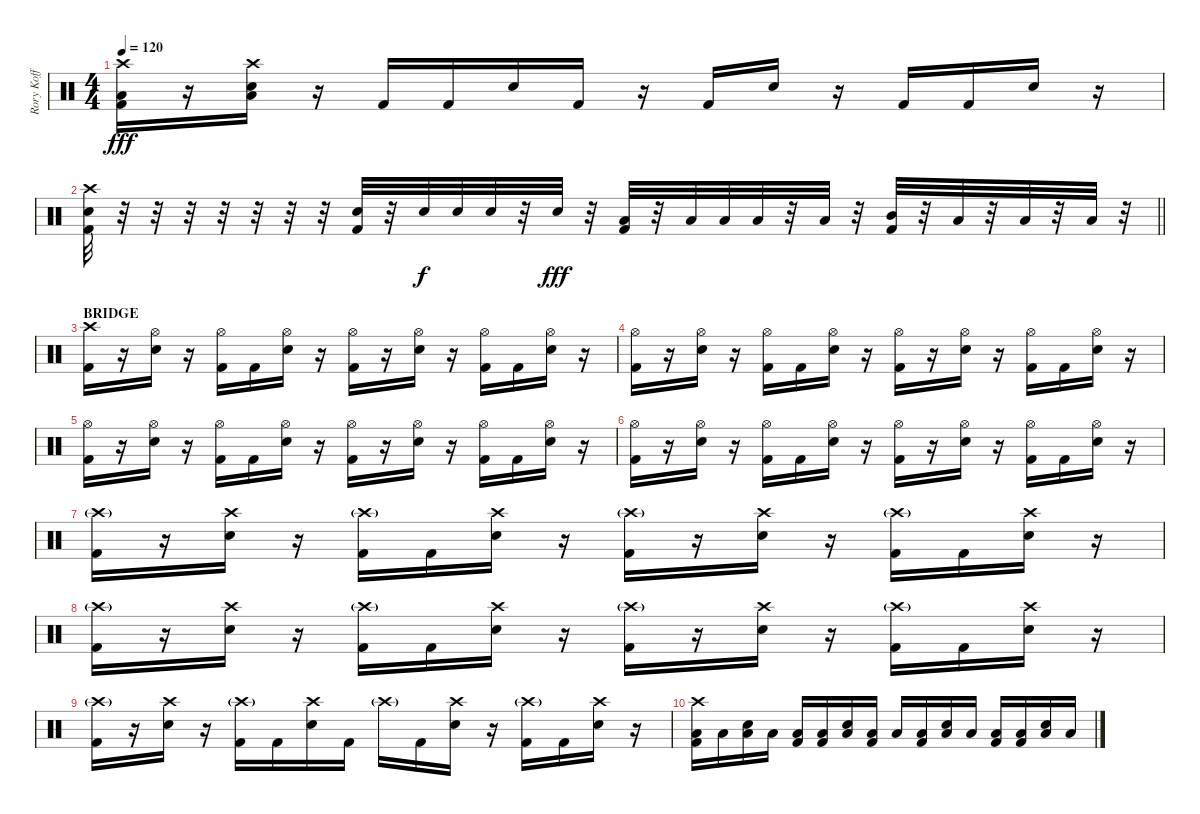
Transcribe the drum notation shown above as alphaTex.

\track ("Rory Koff" "Rory Koff") {instrument percussion}
\staff {score}
\articulation defaults
\ts (4 4)
\tempo 120
\clef neutral
\ks c
("Crash high (hit)" "Low Floor Tom (hit)" "Kick (hit) 2").16{dy fff} r.16 ("Crash high (hit)" "Low Floor Tom (hit)" "Snare (hit) 2").16 r.16 "Kick (hit) 2".16 "Kick (hit) 2".16 "Snare (hit) 2".16 "Kick (hit) 2".16 r.16 "Kick (hit) 2".16 "Snare (hit) 2".16 r.16 "Kick (hit) 2".16 "Kick (hit) 2".16 "Snare (hit) 2".16 r.16 |
\barLineRight lightlight
("Crash high (hit)" "Snare (hit) 2" "Kick (hit) 2").32 r.32 r.32 r.32 r.32 r.32 r.32 r.32 ("Snare (hit) 2" "Kick (hit) 2").32 r.32 "Snare (hit) 2".32{dy f} "Snare (hit) 2".32 "Snare (hit) 2".32 r.32 "Snare (hit) 2".32{dy fff} r.32 ("Low Tom (hit)" "Kick (hit) 2").32 r.32 "Low Tom (hit)".32 "Low Tom (hit)".32 "Low Tom (hit)".32 r.32 "Low Floor Tom (hit)".32 r.32 ("Mid Tom (hit)" "Kick (hit) 2").32 r.32 "Low Tom (hit)".32 r.32 "Low Tom (hit)".32 r.32 "Low Floor Tom (hit)".32 r.32 |
\section ("" "BRIDGE")
("Crash high (hit)" "Kick (hit) 2").16 r.16 ("Hi-Hat (open)" "Snare (hit) 2").16 r.16 ("Hi-Hat (open)" "Kick (hit) 2").16 "Kick (hit) 2".16 ("Hi-Hat (open)" "Snare (hit) 2").16 r.16 ("Hi-Hat (open)" "Kick (hit) 2").16 r.16 ("Hi-Hat (open)" "Snare (hit) 2").16 r.16 ("Hi-Hat (open)" "Kick (hit) 2").16 "Kick (hit) 2".16 ("Hi-Hat (open)" "Snare (hit) 2").16 r.16 |
("Hi-Hat (open)" "Kick (hit) 2").16 r.16 ("Hi-Hat (open)" "Snare (hit) 2").16 r.16 ("Hi-Hat (open)" "Kick (hit) 2").16 "Kick (hit) 2".16 ("Hi-Hat (open)" "Snare (hit) 2").16 r.16 ("Hi-Hat (open)" "Kick (hit) 2").16 r.16 ("Hi-Hat (open)" "Snare (hit) 2").16 r.16 ("Hi-Hat (open)" "Kick (hit) 2").16 "Kick (hit) 2".16 ("Hi-Hat (open)" "Snare (hit) 2").16 r.16 |
("Hi-Hat (open)" "Kick (hit) 2").16 r.16 ("Hi-Hat (open)" "Snare (hit) 2").16 r.16 ("Hi-Hat (open)" "Kick (hit) 2").16 "Kick (hit) 2".16 ("Hi-Hat (open)" "Snare (hit) 2").16 r.16 ("Hi-Hat (open)" "Kick (hit) 2").16 r.16 ("Hi-Hat (open)" "Snare (hit) 2").16 r.16 ("Hi-Hat (open)" "Kick (hit) 2").16 "Kick (hit) 2".16 ("Hi-Hat (open)" "Snare (hit) 2").16 r.16 |
("Hi-Hat (open)" "Kick (hit) 2").16 r.16 ("Hi-Hat (open)" "Snare (hit) 2").16 r.16 ("Hi-Hat (open)" "Kick (hit) 2").16 "Kick (hit) 2".16 ("Hi-Hat (open)" "Snare (hit) 2").16 r.16 ("Hi-Hat (open)" "Kick (hit) 2").16 r.16 ("Hi-Hat (open)" "Snare (hit) 2").16 r.16 ("Hi-Hat (open)" "Kick (hit) 2").16 "Kick (hit) 2".16 ("Hi-Hat (open)" "Snare (hit) 2").16 r.16 |
("Crash high (hit)"{g} "Kick (hit) 2").16 r.16 ("Crash high (hit)" "Snare (hit) 2").16 r.16 ("Crash high (hit)"{g} "Kick (hit) 2").16 "Kick (hit) 2".16 ("Crash high (hit)" "Snare (hit) 2").16 r.16 ("Crash high (hit)"{g} "Kick (hit) 2").16 r.16 ("Crash high (hit)" "Snare (hit) 2").16 r.16 ("Crash high (hit)"{g} "Kick (hit) 2").16 "Kick (hit) 2".16 ("Crash high (hit)" "Snare (hit) 2").16 r.16 |
("Crash high (hit)"{g} "Kick (hit) 2").16 r.16 ("Crash high (hit)" "Snare (hit) 2").16 r.16 ("Crash high (hit)"{g} "Kick (hit) 2").16 "Kick (hit) 2".16 ("Crash high (hit)" "Snare (hit) 2").16 r.16 ("Crash high (hit)"{g} "Kick (hit) 2").16 r.16 ("Crash high (hit)" "Snare (hit) 2").16 r.16 ("Crash high (hit)"{g} "Kick (hit) 2").16 "Kick (hit) 2".16 ("Crash high (hit)" "Snare (hit) 2").16 r.16 |
("Crash high (hit)"{g} "Kick (hit) 2").16 r.16 ("Crash high (hit)" "Snare (hit) 2").16 r.16 ("Crash high (hit)"{g} "Kick (hit) 2").16 "Kick (hit) 2".16 ("Crash high (hit)" "Snare (hit) 2").16 "Kick (hit) 2".16 "Crash high (hit)"{g}.16 "Kick (hit) 2".16 ("Crash high (hit)" "Snare (hit) 2").16 r.16 ("Crash high (hit)"{g} "Kick (hit) 2").16 "Kick (hit) 2".16 ("Crash high (hit)" "Snare (hit) 2").16 r.16 |
("Crash high (hit)" "Low Floor Tom (hit)" "Kick (hit) 2").16 "Low Floor Tom (hit)".16 ("Low Floor Tom (hit)" "Snare (hit) 2").16 "Low Floor Tom (hit)".16 ("Low Floor Tom (hit)" "Kick (hit) 2").16 ("Low Floor Tom (hit)" "Kick (hit) 2").16 ("Low Floor Tom (hit)" "Snare (hit) 2").16 ("Low Floor Tom (hit)" "Kick (hit) 2").16 "Low Floor Tom (hit)".16 ("Low Floor Tom (hit)" "Kick (hit) 2").16 ("Low Floor Tom (hit)" "Snare (hit) 2").16 "Low Floor Tom (hit)".16 ("Low Floor Tom (hit)" "Kick (hit) 2").16 ("Low Floor Tom (hit)" "Kick (hit) 2").16 ("Low Floor Tom (hit)" "Snare (hit) 2").16 "Low Floor Tom (hit)".16
